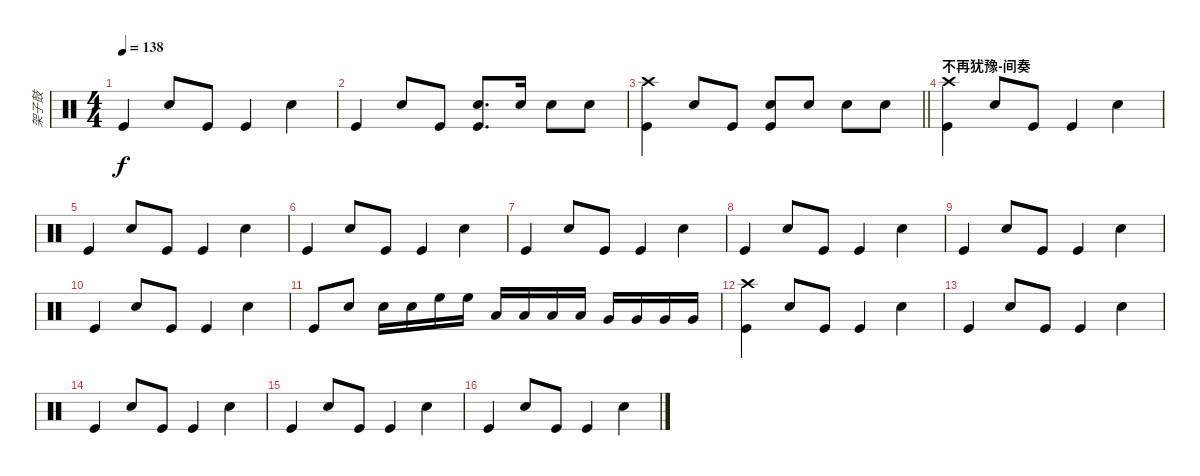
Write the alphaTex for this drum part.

\track ("架子鼓" "架子鼓") {instrument percussion}
\staff {score}
\articulation defaults
\ts (4 4)
\tempo 138
\clef neutral
\ks c "Kick (hit)".4{dy f} "Electric Snare (hit)".8 "Kick (hit)".8 "Kick (hit)".4 "Electric Snare (hit)".4
|
"Kick (hit)".4 "Electric Snare (hit)".8 "Kick (hit)".8 ("Electric Snare (hit)" "Kick (hit)").8{d} "Electric Snare (hit)".16 "Electric Snare (hit)".8 "Electric Snare (hit)".8 |
\barLineRight lightlight
("Crash high (hit)" "Kick (hit)").4 "Electric Snare (hit)".8 "Kick (hit)".8 ("Electric Snare (hit)" "Kick (hit)").8 "Electric Snare (hit)".8 "Electric Snare (hit)".8 "Electric Snare (hit)".8 |
\section ("" "不再犹豫-间奏")
("Crash high (hit)" "Kick (hit)").4 "Electric Snare (hit)".8 "Kick (hit)".8 "Kick (hit)".4 "Electric Snare (hit)".4 |
"Kick (hit)".4 "Electric Snare (hit)".8 "Kick (hit)".8 "Kick (hit)".4 "Electric Snare (hit)".4 |
"Kick (hit)".4 "Electric Snare (hit)".8 "Kick (hit)".8 "Kick (hit)".4 "Electric Snare (hit)".4 |
"Kick (hit)".4 "Electric Snare (hit)".8 "Kick (hit)".8 "Kick (hit)".4 "Electric Snare (hit)".4 |
"Kick (hit)".4 "Electric Snare (hit)".8 "Kick (hit)".8 "Kick (hit)".4 "Electric Snare (hit)".4 |
"Kick (hit)".4 "Electric Snare (hit)".8 "Kick (hit)".8 "Kick (hit)".4 "Electric Snare (hit)".4 |
"Kick (hit)".4 "Electric Snare (hit)".8 "Kick (hit)".8 "Kick (hit)".4 "Electric Snare (hit)".4 |
"Kick (hit)".8 "Electric Snare (hit)".8 "Electric Snare (hit)".16 "Electric Snare (hit)".16 "High Floor Tom (hit)".16 "High Floor Tom (hit)".16 "Low Tom (hit)".16 "Low Tom (hit)".16 "Low Tom (hit)".16 "Low Tom (hit)".16 "Very Low Tom (hit)".16 "Very Low Tom (hit)".16 "Very Low Tom (hit)".16 "Very Low Tom (hit)".16 |
("Crash high (hit)" "Kick (hit)").4 "Electric Snare (hit)".8 "Kick (hit)".8 "Kick (hit)".4 "Electric Snare (hit)".4 |
"Kick (hit)".4 "Electric Snare (hit)".8 "Kick (hit)".8 "Kick (hit)".4 "Electric Snare (hit)".4 |
"Kick (hit)".4 "Electric Snare (hit)".8 "Kick (hit)".8 "Kick (hit)".4 "Electric Snare (hit)".4 |
"Kick (hit)".4 "Electric Snare (hit)".8 "Kick (hit)".8 "Kick (hit)".4 "Electric Snare (hit)".4 |
"Kick (hit)".4 "Electric Snare (hit)".8 "Kick (hit)".8 "Kick (hit)".4 "Electric Snare (hit)".4
